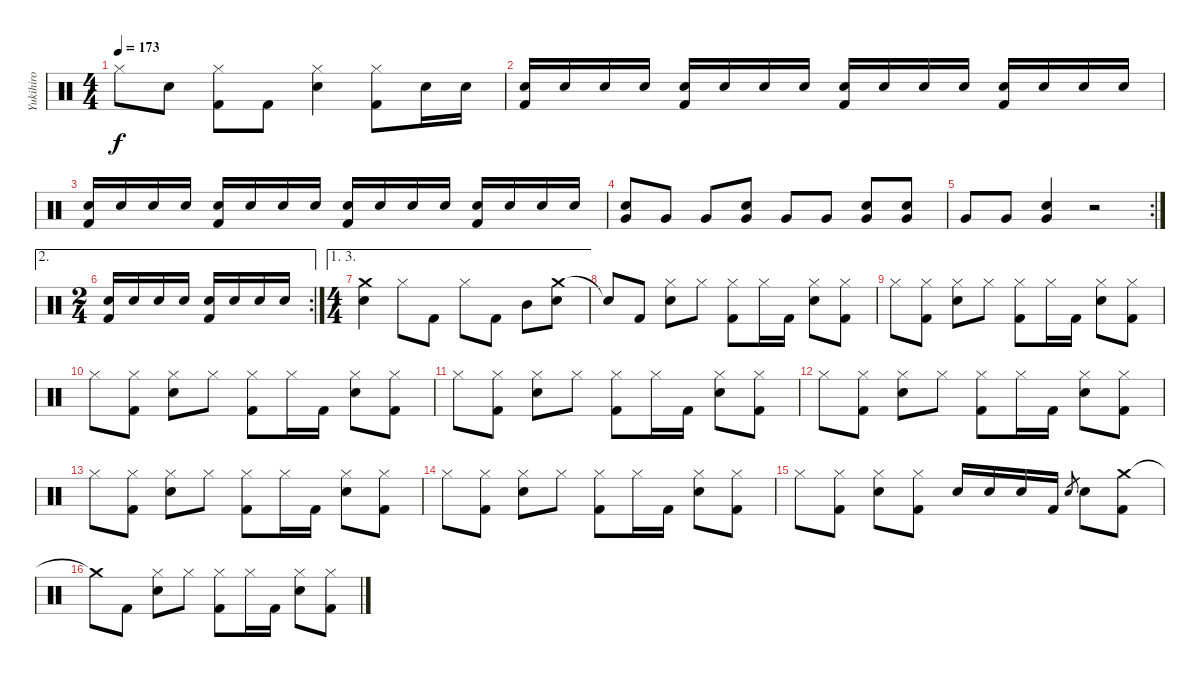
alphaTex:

\track ("Yukihiro" "Yukihiro") {instrument percussion}
\staff {score}
\articulation defaults
\ts (4 4)
\tempo 173
\clef neutral
\ks c "Hi-Hat (closed)".8{dy f} "Snare (hit) 2".8
("Hi-Hat (closed)" "Kick (hit) 2").8 "Kick (hit) 2".8 ("Hi-Hat (closed)" "Snare (hit) 2").4 ("Hi-Hat (closed)" "Kick (hit) 2").8 "Snare (hit) 2".16 "Snare (hit) 2".16 |
("Snare (hit) 2" "Kick (hit) 2").16 "Snare (hit) 2".16 "Snare (hit) 2".16 "Snare (hit) 2".16 ("Snare (hit) 2" "Kick (hit) 2").16 "Snare (hit) 2".16 "Snare (hit) 2".16 "Snare (hit) 2".16 ("Snare (hit) 2" "Kick (hit) 2").16 "Snare (hit) 2".16 "Snare (hit) 2".16 "Snare (hit) 2".16 ("Snare (hit) 2" "Kick (hit) 2").16 "Snare (hit) 2".16 "Snare (hit) 2".16 "Snare (hit) 2".16 |
("Snare (hit) 2" "Kick (hit) 2").16 "Snare (hit) 2".16 "Snare (hit) 2".16 "Snare (hit) 2".16 ("Snare (hit) 2" "Kick (hit) 2").16 "Snare (hit) 2".16 "Snare (hit) 2".16 "Snare (hit) 2".16 ("Snare (hit) 2" "Kick (hit) 2").16 "Snare (hit) 2".16 "Snare (hit) 2".16 "Snare (hit) 2".16 ("Snare (hit) 2" "Kick (hit) 2").16 "Snare (hit) 2".16 "Snare (hit) 2".16 "Snare (hit) 2".16 |
("Snare (hit) 2" "Very Low Tom (hit)").8 "Very Low Tom (hit)".8 "Very Low Tom (hit)".8 ("Snare (hit) 2" "Very Low Tom (hit)").8 "Very Low Tom (hit)".8 "Very Low Tom (hit)".8 ("Snare (hit) 2" "Very Low Tom (hit)").8 ("Snare (hit) 2" "Very Low Tom (hit)").8 |
\rc 2 "Very Low Tom (hit)".8 "Very Low Tom (hit)".8
("Snare (hit) 2" "Very Low Tom (hit)").4 r.2 |
\ae 2
\rc 2
\ts (2 4)
("Snare (hit) 2" "Kick (hit) 2").16 "Snare (hit) 2".16 "Snare (hit) 2".16 "Snare (hit) 2".16 ("Snare (hit) 2" "Kick (hit) 2").16 "Snare (hit) 2".16 "Snare (hit) 2".16 "Snare (hit) 2".16 |
\ae (1 3)
\ts (4 4)
("Crash medium (hit)" "Snare (hit) 2").4 "Hi-Hat (closed)".8 "Kick (hit) 2".8 "Hi-Hat (closed)".8 "Kick (hit) 2".8 "Mid Tom (hit)".8 ("Crash medium (hit)" "Snare (hit) 2").8 |
"Snare (hit)"{t}.8 "Kick (hit) 2".8 ("Hi-Hat (closed)" "Snare (hit) 2").8 "Hi-Hat (closed)".8 ("Hi-Hat (closed)" "Kick (hit) 2").8 "Hi-Hat (closed)".16 "Kick (hit) 2".16 ("Hi-Hat (closed)" "Snare (hit) 2").8 ("Hi-Hat (closed)" "Kick (hit) 2").8 |
"Hi-Hat (closed)".8 ("Hi-Hat (closed)" "Kick (hit) 2").8 ("Hi-Hat (closed)" "Snare (hit) 2").8 "Hi-Hat (closed)".8 ("Hi-Hat (closed)" "Kick (hit) 2").8 "Hi-Hat (closed)".16 "Kick (hit) 2".16 ("Hi-Hat (closed)" "Snare (hit) 2").8 ("Hi-Hat (closed)" "Kick (hit) 2").8 |
"Hi-Hat (closed)".8 ("Hi-Hat (closed)" "Kick (hit) 2").8 ("Hi-Hat (closed)" "Snare (hit) 2").8 "Hi-Hat (closed)".8 ("Hi-Hat (closed)" "Kick (hit) 2").8 "Hi-Hat (closed)".16 "Kick (hit) 2".16 ("Hi-Hat (closed)" "Snare (hit) 2").8 ("Hi-Hat (closed)" "Kick (hit) 2").8 |
"Hi-Hat (closed)".8 ("Hi-Hat (closed)" "Kick (hit) 2").8 ("Hi-Hat (closed)" "Snare (hit) 2").8 "Hi-Hat (closed)".8 ("Hi-Hat (closed)" "Kick (hit) 2").8 "Hi-Hat (closed)".16 "Kick (hit) 2".16 ("Hi-Hat (closed)" "Snare (hit) 2").8 ("Hi-Hat (closed)" "Kick (hit) 2").8 |
"Hi-Hat (closed)".8 ("Hi-Hat (closed)" "Kick (hit) 2").8 ("Hi-Hat (closed)" "Snare (hit) 2").8 "Hi-Hat (closed)".8 ("Hi-Hat (closed)" "Kick (hit) 2").8 "Hi-Hat (closed)".16 "Kick (hit) 2".16 ("Hi-Hat (closed)" "Snare (hit) 2").8 ("Hi-Hat (closed)" "Kick (hit) 2").8 |
"Hi-Hat (closed)".8 ("Hi-Hat (closed)" "Kick (hit) 2").8 ("Hi-Hat (closed)" "Snare (hit) 2").8 "Hi-Hat (closed)".8 ("Hi-Hat (closed)" "Kick (hit) 2").8 "Hi-Hat (closed)".16 "Kick (hit) 2".16 ("Hi-Hat (closed)" "Snare (hit) 2").8 ("Hi-Hat (closed)" "Kick (hit) 2").8 |
"Hi-Hat (closed)".8 ("Hi-Hat (closed)" "Kick (hit) 2").8 ("Hi-Hat (closed)" "Snare (hit) 2").8 "Hi-Hat (closed)".8 ("Hi-Hat (closed)" "Kick (hit) 2").8 "Hi-Hat (closed)".16 "Kick (hit) 2".16 ("Hi-Hat (closed)" "Snare (hit) 2").8 ("Hi-Hat (closed)" "Kick (hit) 2").8 |
"Hi-Hat (closed)".8 ("Hi-Hat (closed)" "Kick (hit) 2").8 ("Hi-Hat (closed)" "Snare (hit) 2").8 ("Hi-Hat (closed)" "Kick (hit) 2").8 "Snare (hit) 2".16 "Snare (hit) 2".16 "Snare (hit) 2".16 "Kick (hit) 2".16 "Snare (hit) 2".8{gr} "Snare (hit) 2".8 ("Crash medium (hit)" "Kick (hit) 2").8 |
"Crash medium (hit)"{t}.8 "Kick (hit) 2".8 ("Hi-Hat (closed)" "Snare (hit) 2").8 "Hi-Hat (closed)".8 ("Hi-Hat (closed)" "Kick (hit) 2").8 "Hi-Hat (closed)".16 "Kick (hit) 2".16 ("Hi-Hat (closed)" "Snare (hit) 2").8 ("Hi-Hat (closed)" "Kick (hit) 2").8
